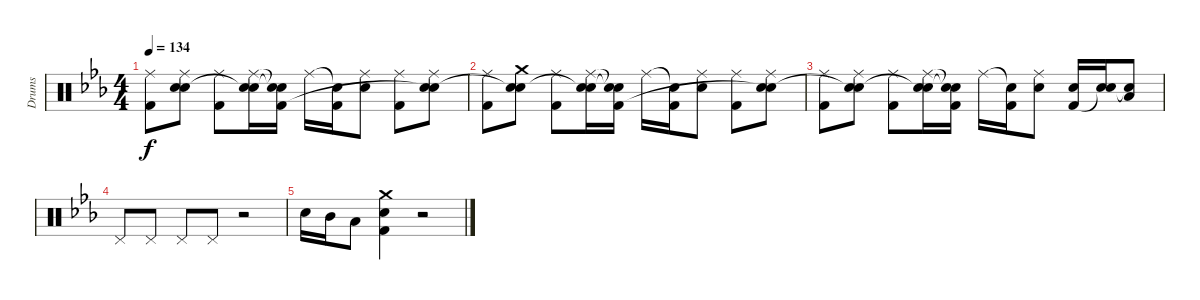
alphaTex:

\track ("Drums" "Drums") {instrument percussion}
\staff {score}
\articulation defaults
\ts (4 4)
\tempo 134
\clef neutral
\ks eb
("Ride (middle)" "Kick (hit) 2").8{dy f} ("Ride (middle)" "Electric Snare (hit)" "Snare (hit)"{t}).8 ("Ride (middle)" "Kick (hit) 2").8 ("Ride (middle)" "Electric Snare (hit)" "Snare (hit)"{t}).16 ("Snare (hit)"{t} "Snare (hit)"{t} "Kick (hit) 2").16 "Ride (middle)".16 ("Snare (hit)"{t} "Kick (hit) 2").16 ("Ride (middle)" "Electric Snare (hit)").8 ("Ride (middle)" "Kick (hit) 2").8 ("Ride (middle)" "Electric Snare (hit)" "Snare (hit)"{t}).8 |
("Ride (middle)" "Kick (hit) 2").8 ("Crash medium (hit)" "Electric Snare (hit)" "Snare (hit)"{t}).8 ("Ride (middle)" "Kick (hit) 2").8 ("Ride (middle)" "Electric Snare (hit)" "Snare (hit)"{t}).16 ("Snare (hit)"{t} "Snare (hit)"{t} "Kick (hit) 2").16 "Ride (middle)".16 ("Snare (hit)"{t} "Kick (hit) 2").16 ("Ride (middle)" "Electric Snare (hit)").8 ("Ride (middle)" "Kick (hit) 2").8 ("Ride (middle)" "Electric Snare (hit)" "Snare (hit)"{t}).8 |
("Ride (middle)" "Kick (hit) 2").8 ("Ride (middle)" "Electric Snare (hit)" "Snare (hit)"{t}).8 ("Ride (middle)" "Kick (hit) 2").8 ("Ride (middle)" "Electric Snare (hit)" "Snare (hit)"{t}).16 ("Snare (hit)"{t} "Snare (hit)"{t} "Kick (hit) 2").16 "Ride (middle)".16 ("Snare (hit)"{t} "Kick (hit) 2").16 ("Ride (middle)" "Electric Snare (hit)").8 ("Electric Snare (hit)" "Kick (hit) 2").16 ("Electric Snare (hit)" "Snare (hit)"{t}).16 ("Low Floor Tom (hit)" "Snare (hit)"{t}).8 |
"Pedal Hi-Hat (hit)".8 "Pedal Hi-Hat (hit)".8 "Pedal Hi-Hat (hit)".8 "Pedal Hi-Hat (hit)".8 r.2 |
"Electric Snare (hit)".16 "Mid Tom (hit)".16 "Low Floor Tom (hit)".8 ("Crash medium (hit)" "Electric Snare (hit)" "Kick (hit) 2").4 r.2
